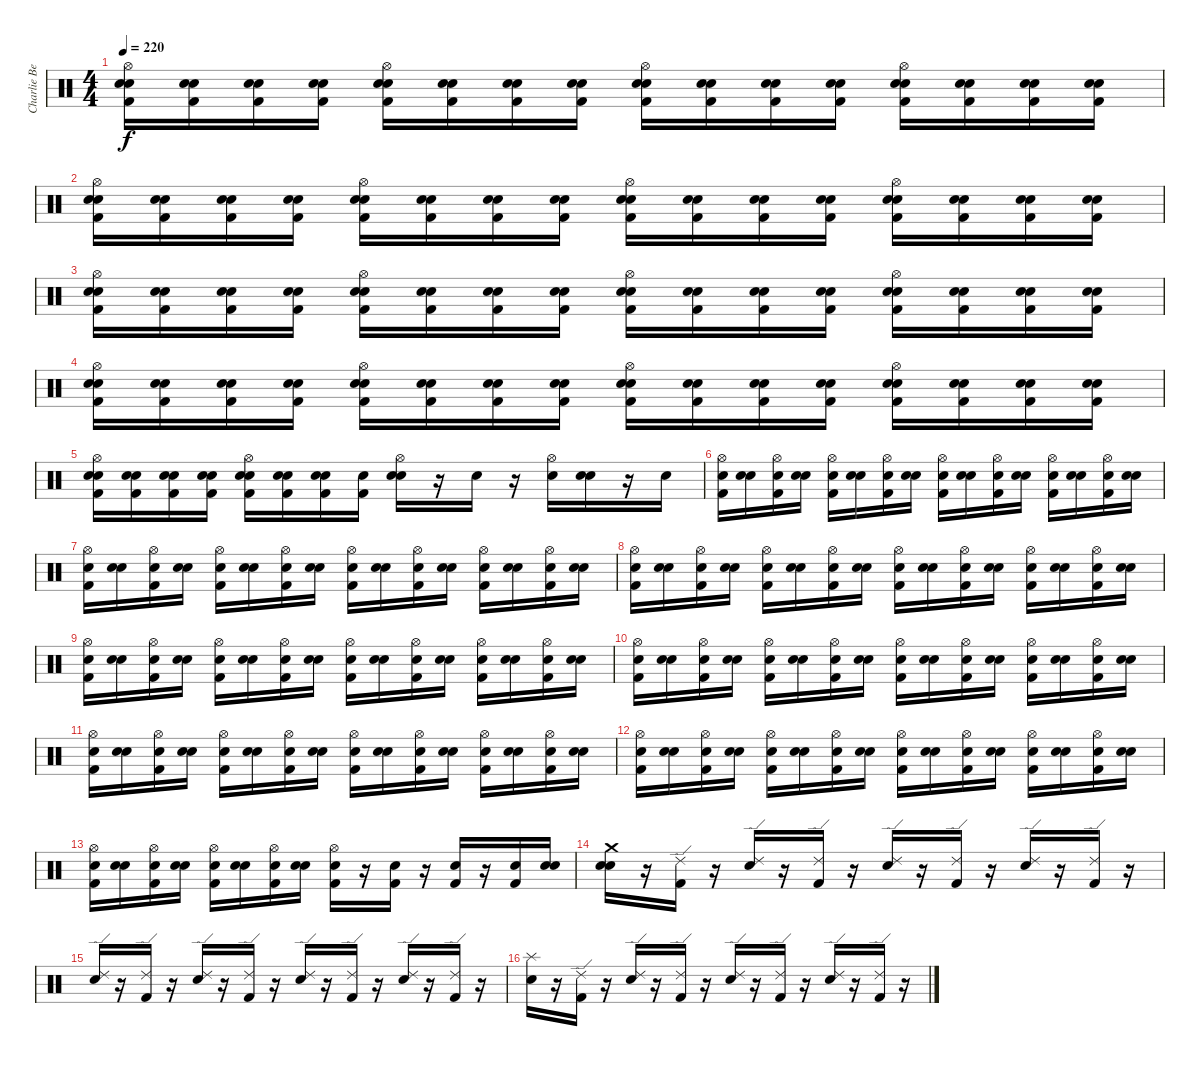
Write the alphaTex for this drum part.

\track ("Charlie Benante" "Charlie Be") {instrument percussion}
\staff {score}
\articulation defaults
\ts (4 4)
\tempo 220
\clef neutral
\ks c
("Snare (hit)" "Kick (hit) 2" "Snare (hit) 2" "Hi-Hat (open)").16{dy f} ("Snare (hit)" "Kick (hit) 2" "Snare (hit) 2").16 ("Snare (hit)" "Kick (hit) 2" "Snare (hit) 2").16 ("Snare (hit)" "Kick (hit) 2" "Snare (hit) 2").16 ("Snare (hit)" "Kick (hit) 2" "Snare (hit) 2" "Hi-Hat (open)").16 ("Snare (hit)" "Kick (hit) 2" "Snare (hit) 2").16 ("Snare (hit)" "Kick (hit) 2" "Snare (hit) 2").16 ("Snare (hit)" "Kick (hit) 2" "Snare (hit) 2").16 ("Snare (hit)" "Kick (hit) 2" "Snare (hit) 2" "Hi-Hat (open)").16 ("Snare (hit)" "Kick (hit) 2" "Snare (hit) 2").16 ("Snare (hit)" "Kick (hit) 2" "Snare (hit) 2").16 ("Snare (hit)" "Kick (hit) 2" "Snare (hit) 2").16 ("Snare (hit)" "Kick (hit) 2" "Snare (hit) 2" "Hi-Hat (open)").16 ("Snare (hit)" "Kick (hit) 2" "Snare (hit) 2").16 ("Snare (hit)" "Kick (hit) 2" "Snare (hit) 2").16 ("Snare (hit)" "Kick (hit) 2" "Snare (hit) 2").16 |
("Snare (hit)" "Kick (hit) 2" "Snare (hit) 2" "Hi-Hat (open)").16 ("Snare (hit)" "Kick (hit) 2" "Snare (hit) 2").16 ("Snare (hit)" "Kick (hit) 2" "Snare (hit) 2").16 ("Snare (hit)" "Kick (hit) 2" "Snare (hit) 2").16 ("Snare (hit)" "Kick (hit) 2" "Snare (hit) 2" "Hi-Hat (open)").16 ("Snare (hit)" "Kick (hit) 2" "Snare (hit) 2").16 ("Snare (hit)" "Kick (hit) 2" "Snare (hit) 2").16 ("Snare (hit)" "Kick (hit) 2" "Snare (hit) 2").16 ("Snare (hit)" "Kick (hit) 2" "Snare (hit) 2" "Hi-Hat (open)").16 ("Snare (hit)" "Kick (hit) 2" "Snare (hit) 2").16 ("Snare (hit)" "Kick (hit) 2" "Snare (hit) 2").16 ("Snare (hit)" "Kick (hit) 2" "Snare (hit) 2").16 ("Snare (hit)" "Kick (hit) 2" "Snare (hit) 2" "Hi-Hat (open)").16 ("Snare (hit)" "Kick (hit) 2" "Snare (hit) 2").16 ("Snare (hit)" "Kick (hit) 2" "Snare (hit) 2").16 ("Snare (hit)" "Kick (hit) 2" "Snare (hit) 2").16 |
("Snare (hit)" "Kick (hit) 2" "Snare (hit) 2" "Hi-Hat (open)").16 ("Snare (hit)" "Kick (hit) 2" "Snare (hit) 2").16 ("Snare (hit)" "Kick (hit) 2" "Snare (hit) 2").16 ("Snare (hit)" "Kick (hit) 2" "Snare (hit) 2").16 ("Snare (hit)" "Kick (hit) 2" "Snare (hit) 2" "Hi-Hat (open)").16 ("Snare (hit)" "Kick (hit) 2" "Snare (hit) 2").16 ("Snare (hit)" "Kick (hit) 2" "Snare (hit) 2").16 ("Snare (hit)" "Kick (hit) 2" "Snare (hit) 2").16 ("Snare (hit)" "Kick (hit) 2" "Snare (hit) 2" "Hi-Hat (open)").16 ("Snare (hit)" "Kick (hit) 2" "Snare (hit) 2").16 ("Snare (hit)" "Kick (hit) 2" "Snare (hit) 2").16 ("Snare (hit)" "Kick (hit) 2" "Snare (hit) 2").16 ("Snare (hit)" "Kick (hit) 2" "Snare (hit) 2" "Hi-Hat (open)").16 ("Snare (hit)" "Kick (hit) 2" "Snare (hit) 2").16 ("Snare (hit)" "Kick (hit) 2" "Snare (hit) 2").16 ("Snare (hit)" "Kick (hit) 2" "Snare (hit) 2").16 |
("Snare (hit)" "Kick (hit) 2" "Snare (hit) 2" "Hi-Hat (open)").16 ("Snare (hit)" "Kick (hit) 2" "Snare (hit) 2").16 ("Snare (hit)" "Kick (hit) 2" "Snare (hit) 2").16 ("Snare (hit)" "Kick (hit) 2" "Snare (hit) 2").16 ("Snare (hit)" "Kick (hit) 2" "Snare (hit) 2" "Hi-Hat (open)").16 ("Snare (hit)" "Kick (hit) 2" "Snare (hit) 2").16 ("Snare (hit)" "Kick (hit) 2" "Snare (hit) 2").16 ("Snare (hit)" "Kick (hit) 2" "Snare (hit) 2").16 ("Snare (hit)" "Kick (hit) 2" "Snare (hit) 2" "Hi-Hat (open)").16 ("Snare (hit)" "Kick (hit) 2" "Snare (hit) 2").16 ("Snare (hit)" "Kick (hit) 2" "Snare (hit) 2").16 ("Snare (hit)" "Kick (hit) 2" "Snare (hit) 2").16 ("Snare (hit)" "Kick (hit) 2" "Snare (hit) 2" "Hi-Hat (open)").16 ("Snare (hit)" "Kick (hit) 2" "Snare (hit) 2").16 ("Snare (hit)" "Kick (hit) 2" "Snare (hit) 2").16 ("Snare (hit)" "Kick (hit) 2" "Snare (hit) 2").16 |
("Snare (hit)" "Kick (hit) 2" "Snare (hit) 2" "Hi-Hat (open)").16 ("Snare (hit)" "Kick (hit) 2" "Snare (hit) 2").16 ("Snare (hit)" "Kick (hit) 2" "Snare (hit) 2").16 ("Snare (hit)" "Kick (hit) 2" "Snare (hit) 2").16 ("Snare (hit)" "Kick (hit) 2" "Snare (hit) 2" "Hi-Hat (open)").16 ("Snare (hit)" "Kick (hit) 2" "Snare (hit) 2").16 ("Snare (hit)" "Kick (hit) 2" "Snare (hit) 2").16 ("Snare (hit)" "Kick (hit) 2").16 ("Snare (hit)" "Snare (hit) 2" "Hi-Hat (open)").16 r.16 "Snare (hit) 2".16 r.16 ("Snare (hit) 2" "Hi-Hat (open)").16 ("Snare (hit)" "Snare (hit) 2").16 r.16 "Snare (hit) 2".16 |
("Snare (hit)" "Kick (hit) 2" "Hi-Hat (open)").16 ("Snare (hit)" "Snare (hit) 2").16 ("Snare (hit)" "Kick (hit) 2" "Hi-Hat (open)").16 ("Snare (hit)" "Snare (hit) 2").16 ("Snare (hit)" "Kick (hit) 2" "Hi-Hat (open)").16 ("Snare (hit)" "Snare (hit) 2").16 ("Snare (hit)" "Kick (hit) 2" "Hi-Hat (open)").16 ("Snare (hit)" "Snare (hit) 2").16 ("Snare (hit)" "Kick (hit) 2" "Hi-Hat (open)").16 ("Snare (hit)" "Snare (hit) 2").16 ("Snare (hit)" "Kick (hit) 2" "Hi-Hat (open)").16 ("Snare (hit)" "Snare (hit) 2").16 ("Snare (hit)" "Kick (hit) 2" "Hi-Hat (open)").16 ("Snare (hit)" "Snare (hit) 2").16 ("Snare (hit)" "Kick (hit) 2" "Hi-Hat (open)").16 ("Snare (hit)" "Snare (hit) 2").16 |
("Snare (hit)" "Kick (hit) 2" "Hi-Hat (open)").16 ("Snare (hit)" "Snare (hit) 2").16 ("Snare (hit)" "Kick (hit) 2" "Hi-Hat (open)").16 ("Snare (hit)" "Snare (hit) 2").16 ("Snare (hit)" "Kick (hit) 2" "Hi-Hat (open)").16 ("Snare (hit)" "Snare (hit) 2").16 ("Snare (hit)" "Kick (hit) 2" "Hi-Hat (open)").16 ("Snare (hit)" "Snare (hit) 2").16 ("Snare (hit)" "Kick (hit) 2" "Hi-Hat (open)").16 ("Snare (hit)" "Snare (hit) 2").16 ("Snare (hit)" "Kick (hit) 2" "Hi-Hat (open)").16 ("Snare (hit)" "Snare (hit) 2").16 ("Snare (hit)" "Kick (hit) 2" "Hi-Hat (open)").16 ("Snare (hit)" "Snare (hit) 2").16 ("Snare (hit)" "Kick (hit) 2" "Hi-Hat (open)").16 ("Snare (hit)" "Snare (hit) 2").16 |
("Snare (hit)" "Kick (hit) 2" "Hi-Hat (open)").16 ("Snare (hit)" "Snare (hit) 2").16 ("Snare (hit)" "Kick (hit) 2" "Hi-Hat (open)").16 ("Snare (hit)" "Snare (hit) 2").16 ("Snare (hit)" "Kick (hit) 2" "Hi-Hat (open)").16 ("Snare (hit)" "Snare (hit) 2").16 ("Snare (hit)" "Kick (hit) 2" "Hi-Hat (open)").16 ("Snare (hit)" "Snare (hit) 2").16 ("Snare (hit)" "Kick (hit) 2" "Hi-Hat (open)").16 ("Snare (hit)" "Snare (hit) 2").16 ("Snare (hit)" "Kick (hit) 2" "Hi-Hat (open)").16 ("Snare (hit)" "Snare (hit) 2").16 ("Snare (hit)" "Kick (hit) 2" "Hi-Hat (open)").16 ("Snare (hit)" "Snare (hit) 2").16 ("Snare (hit)" "Kick (hit) 2" "Hi-Hat (open)").16 ("Snare (hit)" "Snare (hit) 2").16 |
("Snare (hit)" "Kick (hit) 2" "Hi-Hat (open)").16 ("Snare (hit)" "Snare (hit) 2").16 ("Snare (hit)" "Kick (hit) 2" "Hi-Hat (open)").16 ("Snare (hit)" "Snare (hit) 2").16 ("Snare (hit)" "Kick (hit) 2" "Hi-Hat (open)").16 ("Snare (hit)" "Snare (hit) 2").16 ("Snare (hit)" "Kick (hit) 2" "Hi-Hat (open)").16 ("Snare (hit)" "Snare (hit) 2").16 ("Snare (hit)" "Kick (hit) 2" "Hi-Hat (open)").16 ("Snare (hit)" "Snare (hit) 2").16 ("Snare (hit)" "Kick (hit) 2" "Hi-Hat (open)").16 ("Snare (hit)" "Snare (hit) 2").16 ("Snare (hit)" "Kick (hit) 2" "Hi-Hat (open)").16 ("Snare (hit)" "Snare (hit) 2").16 ("Snare (hit)" "Kick (hit) 2" "Hi-Hat (open)").16 ("Snare (hit)" "Snare (hit) 2").16 |
("Snare (hit)" "Kick (hit) 2" "Hi-Hat (open)").16 ("Snare (hit)" "Snare (hit) 2").16 ("Snare (hit)" "Kick (hit) 2" "Hi-Hat (open)").16 ("Snare (hit)" "Snare (hit) 2").16 ("Snare (hit)" "Kick (hit) 2" "Hi-Hat (open)").16 ("Snare (hit)" "Snare (hit) 2").16 ("Snare (hit)" "Kick (hit) 2" "Hi-Hat (open)").16 ("Snare (hit)" "Snare (hit) 2").16 ("Snare (hit)" "Kick (hit) 2" "Hi-Hat (open)").16 ("Snare (hit)" "Snare (hit) 2").16 ("Snare (hit)" "Kick (hit) 2" "Hi-Hat (open)").16 ("Snare (hit)" "Snare (hit) 2").16 ("Snare (hit)" "Kick (hit) 2" "Hi-Hat (open)").16 ("Snare (hit)" "Snare (hit) 2").16 ("Snare (hit)" "Kick (hit) 2" "Hi-Hat (open)").16 ("Snare (hit)" "Snare (hit) 2").16 |
("Snare (hit)" "Kick (hit) 2" "Hi-Hat (open)").16 ("Snare (hit)" "Snare (hit) 2").16 ("Snare (hit)" "Kick (hit) 2" "Hi-Hat (open)").16 ("Snare (hit)" "Snare (hit) 2").16 ("Snare (hit)" "Kick (hit) 2" "Hi-Hat (open)").16 ("Snare (hit)" "Snare (hit) 2").16 ("Snare (hit)" "Kick (hit) 2" "Hi-Hat (open)").16 ("Snare (hit)" "Snare (hit) 2").16 ("Snare (hit)" "Kick (hit) 2" "Hi-Hat (open)").16 ("Snare (hit)" "Snare (hit) 2").16 ("Snare (hit)" "Kick (hit) 2" "Hi-Hat (open)").16 ("Snare (hit)" "Snare (hit) 2").16 ("Snare (hit)" "Kick (hit) 2" "Hi-Hat (open)").16 ("Snare (hit)" "Snare (hit) 2").16 ("Snare (hit)" "Kick (hit) 2" "Hi-Hat (open)").16 ("Snare (hit)" "Snare (hit) 2").16 |
("Snare (hit)" "Kick (hit) 2" "Hi-Hat (open)").16 ("Snare (hit)" "Snare (hit) 2").16 ("Snare (hit)" "Kick (hit) 2" "Hi-Hat (open)").16 ("Snare (hit)" "Snare (hit) 2").16 ("Snare (hit)" "Kick (hit) 2" "Hi-Hat (open)").16 ("Snare (hit)" "Snare (hit) 2").16 ("Snare (hit)" "Kick (hit) 2" "Hi-Hat (open)").16 ("Snare (hit)" "Snare (hit) 2").16 ("Snare (hit)" "Kick (hit) 2" "Hi-Hat (open)").16 ("Snare (hit)" "Snare (hit) 2").16 ("Snare (hit)" "Kick (hit) 2" "Hi-Hat (open)").16 ("Snare (hit)" "Snare (hit) 2").16 ("Snare (hit)" "Kick (hit) 2" "Hi-Hat (open)").16 ("Snare (hit)" "Snare (hit) 2").16 ("Snare (hit)" "Kick (hit) 2" "Hi-Hat (open)").16 ("Snare (hit)" "Snare (hit) 2").16 |
("Snare (hit)" "Kick (hit) 2" "Hi-Hat (open)").16 ("Snare (hit)" "Snare (hit) 2").16 ("Snare (hit)" "Kick (hit) 2" "Hi-Hat (open)").16 ("Snare (hit)" "Snare (hit) 2").16 ("Snare (hit)" "Kick (hit) 2" "Hi-Hat (open)").16 ("Snare (hit)" "Snare (hit) 2").16 ("Snare (hit)" "Kick (hit) 2" "Hi-Hat (open)").16 ("Snare (hit)" "Snare (hit) 2").16 ("Snare (hit)" "Kick (hit) 2" "Hi-Hat (open)").16 r.16 ("Kick (hit) 2" "Snare (hit) 2").16 r.16 ("Kick (hit) 2" "Snare (hit) 2").16 r.16 ("Kick (hit) 2" "Snare (hit) 2").16 ("Snare (hit)" "Snare (hit) 2").16 |
("Snare (hit)" "Snare (hit) 2" "Crash medium (hit)").16 r.16 ("Kick (hit) 2" "Ride (edge) 2").16 r.16 ("Snare (hit) 2" "Ride (edge) 2").16 r.16 ("Kick (hit) 2" "Ride (edge) 2").16 r.16 ("Snare (hit) 2" "Ride (edge) 2").16 r.16 ("Kick (hit) 2" "Ride (edge) 2").16 r.16 ("Snare (hit) 2" "Ride (edge) 2").16 r.16 ("Kick (hit) 2" "Ride (edge) 2").16 r.16 |
("Snare (hit) 2" "Ride (edge) 2").16 r.16 ("Kick (hit) 2" "Ride (edge) 2").16 r.16 ("Snare (hit) 2" "Ride (edge) 2").16 r.16 ("Kick (hit) 2" "Ride (edge) 2").16 r.16 ("Snare (hit) 2" "Ride (edge) 2").16 r.16 ("Kick (hit) 2" "Ride (edge) 2").16 r.16 ("Snare (hit) 2" "Ride (edge) 2").16 r.16 ("Kick (hit) 2" "Ride (edge) 2").16 r.16 |
("Snare (hit) 2" "Splash (hit)").16 r.16 ("Kick (hit) 2" "Ride (edge) 2").16 r.16 ("Snare (hit) 2" "Ride (edge) 2").16 r.16 ("Kick (hit) 2" "Ride (edge) 2").16 r.16 ("Snare (hit) 2" "Ride (edge) 2").16 r.16 ("Kick (hit) 2" "Ride (edge) 2").16 r.16 ("Snare (hit) 2" "Ride (edge) 2").16 r.16 ("Kick (hit) 2" "Ride (edge) 2").16 r.16
